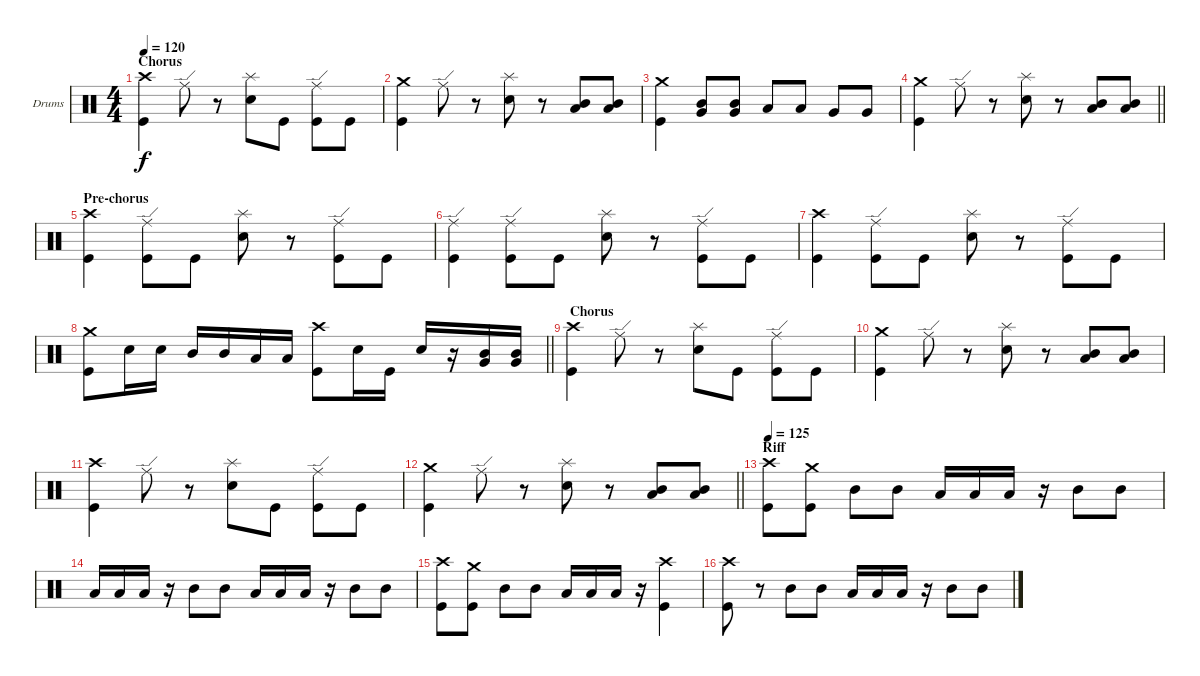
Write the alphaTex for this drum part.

\bracketExtendMode groupsimilarinstruments
\firstSystemTrackNameOrientation horizontal
\otherSystemsTrackNameOrientation horizontal
\track ("Drumkit" "Drums") {instrument percussion}
\staff {score}
\articulation defaults
\ts (4 4)
\section ("" "Chorus")
\tempo 120
\clef neutral
\ks c
("Crash high (hit)" "Kick (hit)").4{dy f} "Ride (edge)".8 r.8 ("Splash (hit)" "Snare (hit) 2").8 "Kick (hit)".8 ("Ride (edge)" "Kick (hit)").8 "Kick (hit)".8 |
("Crash medium (hit)" "Kick (hit)").4 "Ride (edge)".8 r.8 ("Splash (hit)" "Snare (hit) 2").8 r.8 ("Mid Tom (hit)" "Low Tom (hit)").8 ("Mid Tom (hit)" "Low Tom (hit)").8 |
("Crash medium (hit)" "Kick (hit)").4 ("Mid Tom (hit)" "Very Low Tom (hit)").8 ("Mid Tom (hit)" "Very Low Tom (hit)").8 "Low Tom (hit)".8 "Low Tom (hit)".8 "Very Low Tom (hit)".8 "Very Low Tom (hit)".8 |
\barLineRight lightlight
("Crash medium (hit)" "Kick (hit)").4 "Ride (edge)".8 r.8 ("Splash (hit)" "Snare (hit) 2").8 r.8 ("Mid Tom (hit)" "Low Tom (hit)").8 ("Mid Tom (hit)" "Low Tom (hit)").8 |
\section ("" "Pre-chorus")
("Crash high (hit)" "Kick (hit)").4 ("Ride (edge)" "Kick (hit)").8 "Kick (hit)".8 ("Splash (hit)" "Snare (hit) 2").8 r.8 ("Ride (edge)" "Kick (hit)").8 "Kick (hit)".8 |
("Ride (edge)" "Kick (hit)").4 ("Ride (edge)" "Kick (hit)").8 "Kick (hit)".8 ("Splash (hit)" "Snare (hit) 2").8 r.8 ("Ride (edge)" "Kick (hit)").8 "Kick (hit)".8 |
("Crash high (hit)" "Kick (hit)").4 ("Ride (edge)" "Kick (hit)").8 "Kick (hit)".8 ("Splash (hit)" "Snare (hit) 2").8 r.8 ("Ride (edge)" "Kick (hit)").8 "Kick (hit)".8 |
\barLineRight lightlight
("Crash medium (hit)" "Kick (hit)").8 "Snare (hit) 2".16 "Snare (hit) 2".16 "Mid Tom (hit)".16 "Mid Tom (hit)".16 "Low Tom (hit)".16 "Low Tom (hit)".16 ("Crash high (hit)" "Kick (hit)").8 "Snare (hit) 2".16 "Kick (hit)".16 "Snare (hit) 2".16 r.16 ("Very Low Tom (hit)" "Mid Tom (hit)").16 ("Very Low Tom (hit)" "Mid Tom (hit)").16 |
\section ("" " Chorus")
("Crash high (hit)" "Kick (hit)").4 "Ride (edge)".8 r.8 ("Splash (hit)" "Snare (hit) 2").8 "Kick (hit)".8 ("Ride (edge)" "Kick (hit)").8 "Kick (hit)".8 |
("Crash medium (hit)" "Kick (hit)").4 "Ride (edge)".8 r.8 ("Splash (hit)" "Snare (hit) 2").8 r.8 ("Mid Tom (hit)" "Low Tom (hit)").8 ("Mid Tom (hit)" "Low Tom (hit)").8 |
("Crash high (hit)" "Kick (hit)").4 "Ride (edge)".8 r.8 ("Splash (hit)" "Snare (hit) 2").8 "Kick (hit)".8 ("Ride (edge)" "Kick (hit)").8 "Kick (hit)".8 |
\barLineRight lightlight
("Crash medium (hit)" "Kick (hit)").4 "Ride (edge)".8 r.8 ("Splash (hit)" "Snare (hit) 2").8 r.8 ("Mid Tom (hit)" "Low Tom (hit)").8 ("Mid Tom (hit)" "Low Tom (hit)").8 |
\section ("" "Riff")
\tempo 125
("Crash high (hit)" "Kick (hit)").8 ("Crash medium (hit)" "Kick (hit)").8 "Mid Tom (hit)".8 "Mid Tom (hit)".8 "Low Tom (hit)".16 "Low Tom (hit)".16 "Low Tom (hit)".16 r.16 "Mid Tom (hit)".8 "Mid Tom (hit)".8 |
"Low Tom (hit)".16 "Low Tom (hit)".16 "Low Tom (hit)".16 r.16 "Mid Tom (hit)".8 "Mid Tom (hit)".8 "Low Tom (hit)".16 "Low Tom (hit)".16 "Low Tom (hit)".16 r.16 "Mid Tom (hit)".8 "Mid Tom (hit)".8 |
("Crash high (hit)" "Kick (hit)").8 ("Crash medium (hit)" "Kick (hit)").8 "Mid Tom (hit)".8 "Mid Tom (hit)".8 "Low Tom (hit)".16 "Low Tom (hit)".16 "Low Tom (hit)".16 r.16 ("Crash high (hit)" "Kick (hit)").4 |
("Crash high (hit)" "Kick (hit)").8 r.8 "Mid Tom (hit)".8 "Mid Tom (hit)".8 "Low Tom (hit)".16 "Low Tom (hit)".16 "Low Tom (hit)".16 r.16 "Mid Tom (hit)".8 "Mid Tom (hit)".8
